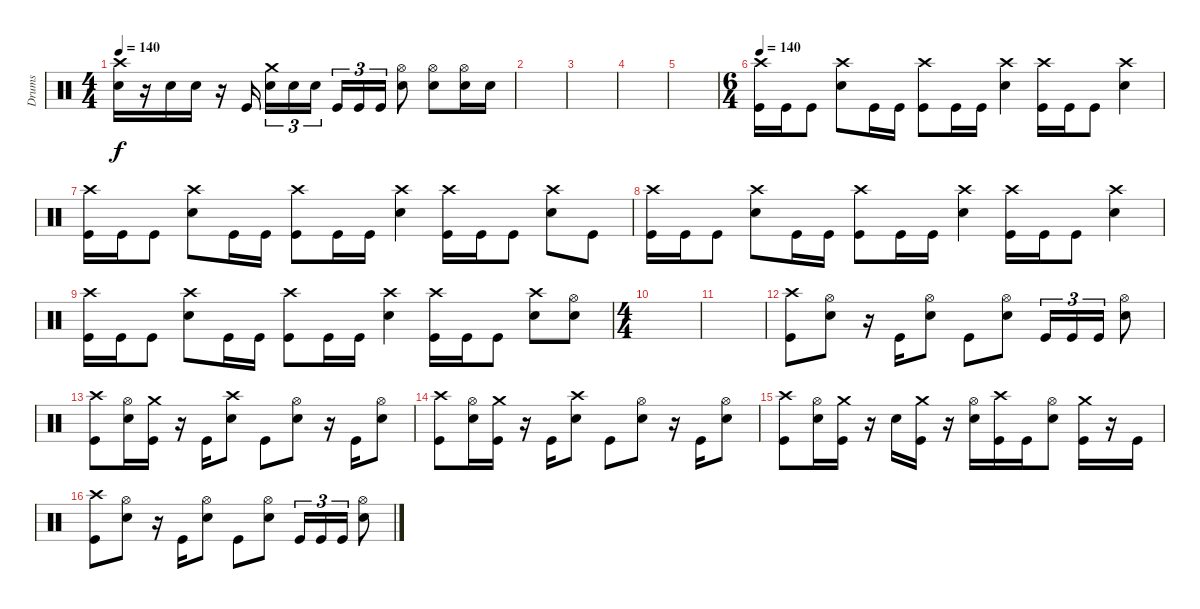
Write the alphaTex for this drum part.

\track ("Drums" "Drums") {instrument percussion}
\staff {score}
\articulation defaults
\ts (4 4)
\tempo 140
\clef neutral
\ks c
("Snare (hit) 2" "Crash high (hit)").16{dy f} r.16 "Snare (hit) 2".16 "Snare (hit) 2".16 r.16 "Kick (hit)".16 ("Snare (hit) 2" "Crash medium (hit)").16{tu (3 2)} "Snare (hit) 2".16{tu (3 2)} "Snare (hit) 2".16{tu (3 2)} "Kick (hit)".16{tu (3 2)} "Kick (hit)".16{tu (3 2)} "Kick (hit)".16{tu (3 2)} ("Snare (hit) 2" "Hi-Hat (open)").8 ("Snare (hit) 2" "Hi-Hat (open)").8 ("Snare (hit) 2" "Hi-Hat (open)").16 "Snare (hit) 2".16 |
|
|
|
|
\ts (6 4)
\tempo 140
("Kick (hit)" "Crash high (hit)").16 "Kick (hit)".16 "Kick (hit)".8 ("Snare (hit) 2" "Crash high (hit)").8 "Kick (hit)".16 "Kick (hit)".16 ("Kick (hit)" "Crash high (hit)").8 "Kick (hit)".16 "Kick (hit)".16 ("Snare (hit) 2" "Crash high (hit)").4 ("Kick (hit)" "Crash high (hit)").16 "Kick (hit)".16 "Kick (hit)".8 ("Snare (hit) 2" "Crash high (hit)").4 |
("Kick (hit)" "Crash high (hit)").16 "Kick (hit)".16 "Kick (hit)".8 ("Snare (hit) 2" "Crash high (hit)").8 "Kick (hit)".16 "Kick (hit)".16 ("Kick (hit)" "Crash high (hit)").8 "Kick (hit)".16 "Kick (hit)".16 ("Snare (hit) 2" "Crash high (hit)").4 ("Kick (hit)" "Crash high (hit)").16 "Kick (hit)".16 "Kick (hit)".8 ("Snare (hit) 2" "Crash high (hit)").8 "Kick (hit)".8 |
("Kick (hit)" "Crash high (hit)").16 "Kick (hit)".16 "Kick (hit)".8 ("Snare (hit) 2" "Crash high (hit)").8 "Kick (hit)".16 "Kick (hit)".16 ("Kick (hit)" "Crash high (hit)").8 "Kick (hit)".16 "Kick (hit)".16 ("Snare (hit) 2" "Crash high (hit)").4 ("Kick (hit)" "Crash high (hit)").16 "Kick (hit)".16 "Kick (hit)".8 ("Snare (hit) 2" "Crash high (hit)").4 |
("Kick (hit)" "Crash high (hit)").16 "Kick (hit)".16 "Kick (hit)".8 ("Snare (hit) 2" "Crash high (hit)").8 "Kick (hit)".16 "Kick (hit)".16 ("Kick (hit)" "Crash high (hit)").8 "Kick (hit)".16 "Kick (hit)".16 ("Snare (hit) 2" "Crash high (hit)").4 ("Kick (hit)" "Crash high (hit)").16 "Kick (hit)".16 "Kick (hit)".8 ("Snare (hit) 2" "Crash high (hit)").8 ("Snare (hit) 2" "Hi-Hat (open)").8 |
\ts (4 4)
|
|
("Kick (hit)" "Crash high (hit)").8 ("Snare (hit) 2" "Hi-Hat (open)").8 r.16 "Kick (hit)".16 ("Snare (hit) 2" "Hi-Hat (open)").8 "Kick (hit)".8 ("Snare (hit) 2" "Hi-Hat (open)").8 "Kick (hit)".16{tu (3 2)} "Kick (hit)".16{tu (3 2)} "Kick (hit)".16{tu (3 2)} ("Snare (hit) 2" "Hi-Hat (open)").8 |
("Kick (hit)" "Crash high (hit)").8 ("Snare (hit) 2" "Hi-Hat (open)").16 ("Kick (hit)" "Crash medium (hit)").16 r.16 "Kick (hit)".16 ("Snare (hit) 2" "Crash high (hit)").8 "Kick (hit)".8 ("Snare (hit) 2" "Hi-Hat (open)").8 r.16 "Kick (hit)".16 ("Snare (hit) 2" "Hi-Hat (open)").8 |
("Kick (hit)" "Crash high (hit)").8 ("Snare (hit) 2" "Hi-Hat (open)").16 ("Kick (hit)" "Crash medium (hit)").16 r.16 "Kick (hit)".16 ("Snare (hit) 2" "Crash high (hit)").8 "Kick (hit)".8 ("Snare (hit) 2" "Hi-Hat (open)").8 r.16 "Kick (hit)".16 ("Snare (hit) 2" "Hi-Hat (open)").8 |
("Kick (hit)" "Crash high (hit)").8 ("Snare (hit) 2" "Hi-Hat (open)").16 ("Kick (hit)" "Crash medium (hit)").16 r.16 "Snare (hit) 2".16 ("Kick (hit)" "Crash medium (hit)").16 r.16 ("Snare (hit) 2" "Hi-Hat (open)").16 ("Kick (hit)" "Crash high (hit)").16 "Kick (hit)".16 ("Snare (hit) 2" "Hi-Hat (open)").8 ("Kick (hit)" "Crash medium (hit)").16 r.16 "Kick (hit)".16 |
("Kick (hit)" "Crash high (hit)").8 ("Snare (hit) 2" "Hi-Hat (open)").8 r.16 "Kick (hit)".16 ("Snare (hit) 2" "Hi-Hat (open)").8 "Kick (hit)".8 ("Snare (hit) 2" "Hi-Hat (open)").8 "Kick (hit)".16{tu (3 2)} "Kick (hit)".16{tu (3 2)} "Kick (hit)".16{tu (3 2)} ("Snare (hit) 2" "Hi-Hat (open)").8
